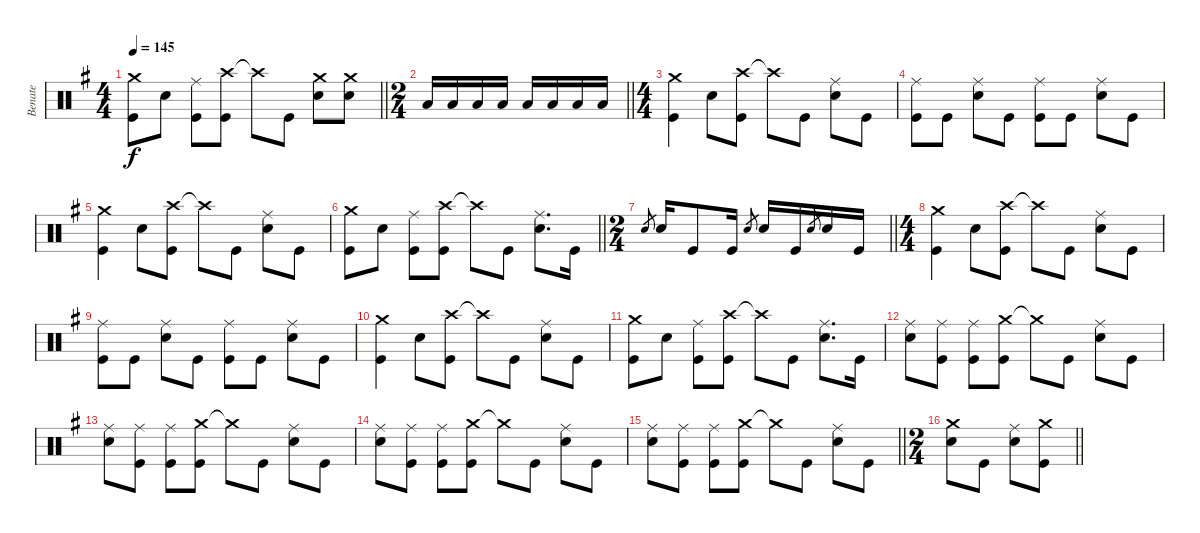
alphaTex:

\track ("Benate" "Benate") {instrument percussion}
\staff {score}
\articulation defaults
\ts (4 4)
\tempo 145
\clef neutral
\barLineRight lightlight
\ks g
("Crash medium (hit)" "Kick (hit)").8{dy f} "Snare (hit) 2".8 ("Ride (middle)" "Kick (hit)").8 ("Crash high (hit)" "Kick (hit)").8 "Crash high (hit)"{t}.8 "Kick (hit)".8 ("Crash medium (hit)" "Snare (hit) 2").8 ("Crash medium (hit)" "Snare (hit) 2").8 |
\ts (2 4)
\barLineRight lightlight "Low Tom (hit)".16 "Low Tom (hit)".16 "Low Tom (hit)".16 "Low Tom (hit)".16 "Low Tom (hit)".16 "Low Tom (hit)".16 "Low Tom (hit)".16 "Low Tom (hit)".16
|
\ts (4 4)
("Crash medium (hit)" "Kick (hit)").4 "Snare (hit) 2".8 ("Crash high (hit)" "Kick (hit)").8 "Crash high (hit)"{t}.8 "Kick (hit)".8 ("Ride (middle)" "Snare (hit) 2").8 "Kick (hit)".8 |
("Ride (middle)" "Kick (hit)").8 "Kick (hit)".8 ("Ride (middle)" "Snare (hit) 2").8 "Kick (hit)".8 ("Ride (middle)" "Kick (hit)").8 "Kick (hit)".8 ("Ride (middle)" "Snare (hit) 2").8 "Kick (hit)".8 |
("Crash medium (hit)" "Kick (hit)").4 "Snare (hit) 2".8 ("Crash high (hit)" "Kick (hit)").8 "Crash high (hit)"{t}.8 "Kick (hit)".8 ("Ride (middle)" "Snare (hit) 2").8 "Kick (hit)".8 |
\barLineRight lightlight
("Crash medium (hit)" "Kick (hit)").8 "Snare (hit) 2".8 ("Ride (middle)" "Kick (hit)").8 ("Crash high (hit)" "Kick (hit)").8 "Crash high (hit)"{t}.8 "Kick (hit)".8 ("Ride (middle)" "Snare (hit) 2").8{d} "Kick (hit)".16 |
\ts (2 4)
\barLineRight lightlight "Snare (hit) 2".8{gr} "Snare (hit) 2".16 "Kick (hit)".8 "Kick (hit)".16 "Snare (hit) 2".8{gr} "Snare (hit) 2".16 "Kick (hit)".16 "Snare (hit) 2".8{gr} "Snare (hit) 2".16 "Kick (hit)".16
|
\ts (4 4)
("Crash medium (hit)" "Kick (hit)").4 "Snare (hit) 2".8 ("Crash high (hit)" "Kick (hit)").8 "Crash high (hit)"{t}.8 "Kick (hit)".8 ("Ride (middle)" "Snare (hit) 2").8 "Kick (hit)".8 |
("Ride (middle)" "Kick (hit)").8 "Kick (hit)".8 ("Ride (middle)" "Snare (hit) 2").8 "Kick (hit)".8 ("Ride (middle)" "Kick (hit)").8 "Kick (hit)".8 ("Ride (middle)" "Snare (hit) 2").8 "Kick (hit)".8 |
("Crash medium (hit)" "Kick (hit)").4 "Snare (hit) 2".8 ("Crash high (hit)" "Kick (hit)").8 "Crash high (hit)"{t}.8 "Kick (hit)".8 ("Ride (middle)" "Snare (hit) 2").8 "Kick (hit)".8 |
("Crash medium (hit)" "Kick (hit)").8 "Snare (hit) 2".8 ("Ride (middle)" "Kick (hit)").8 ("Crash high (hit)" "Kick (hit)").8 "Crash high (hit)"{t}.8 "Kick (hit)".8 ("Ride (middle)" "Snare (hit) 2").8{d} "Kick (hit)".16 |
("Ride (middle)" "Snare (hit) 2").8 ("Ride (middle)" "Kick (hit)").8 ("Ride (middle)" "Kick (hit)").8 ("Crash medium (hit)" "Kick (hit)").8 "Crash medium (hit)"{t}.8 "Kick (hit)".8 ("Ride (middle)" "Snare (hit) 2").8 "Kick (hit)".8 |
("Ride (middle)" "Snare (hit) 2").8 ("Ride (middle)" "Kick (hit)").8 ("Ride (middle)" "Kick (hit)").8 ("Crash medium (hit)" "Kick (hit)").8 "Crash medium (hit)"{t}.8 "Kick (hit)".8 ("Ride (middle)" "Snare (hit) 2").8 "Kick (hit)".8 |
("Ride (middle)" "Snare (hit) 2").8 ("Ride (middle)" "Kick (hit)").8 ("Ride (middle)" "Kick (hit)").8 ("Crash medium (hit)" "Kick (hit)").8 "Crash medium (hit)"{t}.8 "Kick (hit)".8 ("Ride (middle)" "Snare (hit) 2").8 "Kick (hit)".8 |
\barLineRight lightlight
("Ride (middle)" "Snare (hit) 2").8 ("Ride (middle)" "Kick (hit)").8 ("Ride (middle)" "Kick (hit)").8 ("Crash medium (hit)" "Kick (hit)").8 "Crash medium (hit)"{t}.8 "Kick (hit)".8 ("Ride (middle)" "Snare (hit) 2").8 "Kick (hit)".8 |
\ts (2 4)
\barLineRight lightlight
("Crash medium (hit)" "Snare (hit) 2").8 "Kick (hit)".8 ("Ride (middle)" "Snare (hit) 2").8 ("Crash medium (hit)" "Kick (hit)").8
